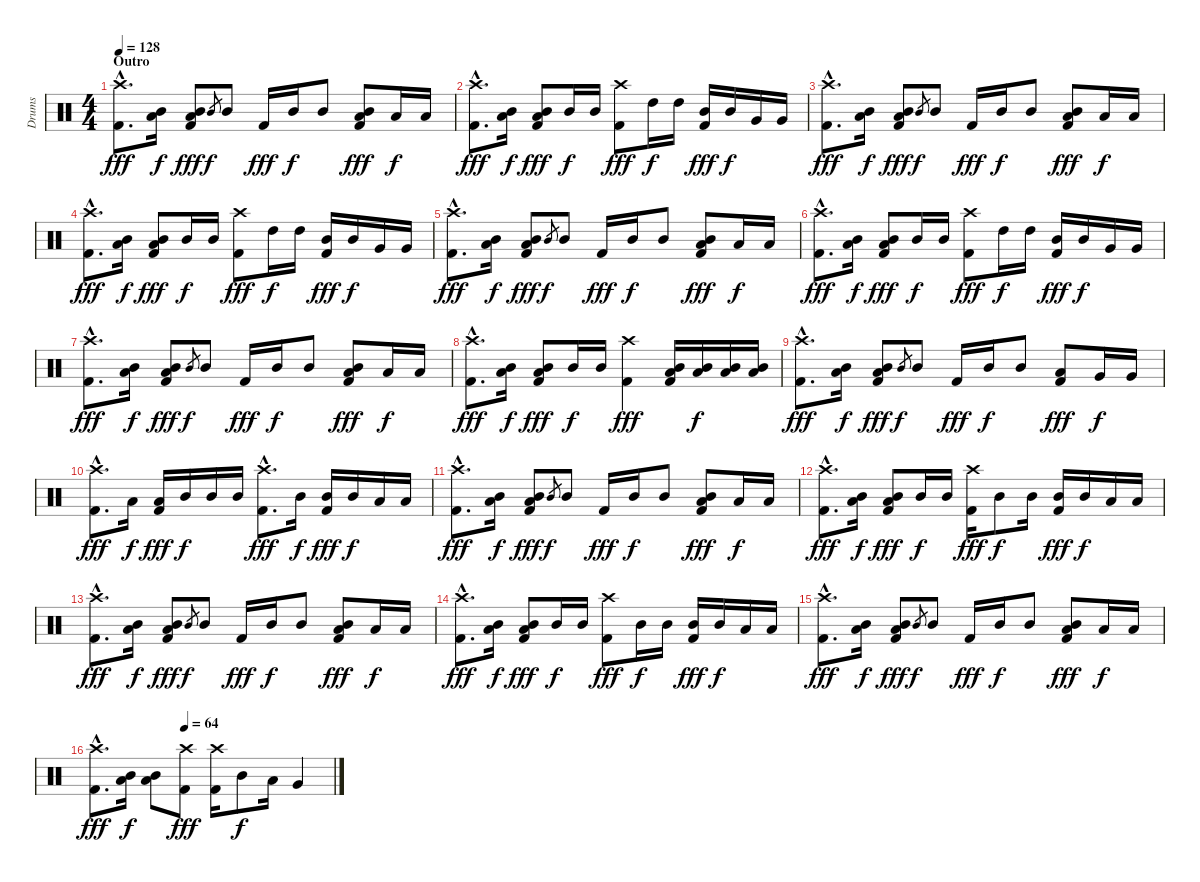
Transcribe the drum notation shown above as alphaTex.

\track ("Drums" "Drums") {instrument percussion}
\staff {score}
\articulation defaults
\ts (4 4)
\section ("" "Outro")
\tempo 128
\clef neutral
\ks c
("Crash high (hit)"{hac} "Kick (hit) 2"{hac}).8{d dy fff} ("Mid Tom (hit)" "Low Tom (hit)").16{dy f} ("Mid Tom (hit)" "Low Tom (hit)" "Kick (hit) 2").8{dy fff} "Mid Tom (hit)".8{gr dy f} "Mid Tom (hit)".8 "Kick (hit) 2".16{dy fff} "Mid Tom (hit)".16{dy f} "Mid Tom (hit)".8 ("Mid Tom (hit)" "Low Tom (hit)" "Kick (hit) 2").8{dy fff} "Low Tom (hit)".16{dy f} "Low Tom (hit)".16 |
("Crash high (hit)"{hac} "Kick (hit) 2"{hac}).8{d dy fff} ("Mid Tom (hit)" "Low Tom (hit)").16{dy f} ("Mid Tom (hit)" "Low Tom (hit)" "Kick (hit) 2").8{dy fff} "Mid Tom (hit)".16{dy f} "Mid Tom (hit)".16 ("Crash high (hit)" "Kick (hit) 2").8{dy fff} "High Tom (hit)".16{dy f} "High Tom (hit)".16 ("Mid Tom (hit)" "Kick (hit) 2").16{dy fff} "Mid Tom (hit)".16{dy f} "Very Low Tom (hit)".16 "Very Low Tom (hit)".16 |
("Crash high (hit)"{hac} "Kick (hit) 2"{hac}).8{d dy fff} ("Mid Tom (hit)" "Low Tom (hit)").16{dy f} ("Mid Tom (hit)" "Low Tom (hit)" "Kick (hit) 2").8{dy fff} "Mid Tom (hit)".8{gr dy f} "Mid Tom (hit)".8 "Kick (hit) 2".16{dy fff} "Mid Tom (hit)".16{dy f} "Mid Tom (hit)".8 ("Mid Tom (hit)" "Low Tom (hit)" "Kick (hit) 2").8{dy fff} "Low Tom (hit)".16{dy f} "Low Tom (hit)".16 |
("Crash high (hit)"{hac} "Kick (hit) 2"{hac}).8{d dy fff} ("Mid Tom (hit)" "Low Tom (hit)").16{dy f} ("Mid Tom (hit)" "Low Tom (hit)" "Kick (hit) 2").8{dy fff} "Mid Tom (hit)".16{dy f} "Mid Tom (hit)".16 ("Crash high (hit)" "Kick (hit) 2").8{dy fff} "High Tom (hit)".16{dy f} "High Tom (hit)".16 ("Mid Tom (hit)" "Kick (hit) 2").16{dy fff} "Mid Tom (hit)".16{dy f} "Very Low Tom (hit)".16 "Very Low Tom (hit)".16 |
("Crash high (hit)"{hac} "Kick (hit) 2"{hac}).8{d dy fff} ("Mid Tom (hit)" "Low Tom (hit)").16{dy f} ("Mid Tom (hit)" "Low Tom (hit)" "Kick (hit) 2").8{dy fff} "Mid Tom (hit)".8{gr dy f} "Mid Tom (hit)".8 "Kick (hit) 2".16{dy fff} "Mid Tom (hit)".16{dy f} "Mid Tom (hit)".8 ("Mid Tom (hit)" "Low Tom (hit)" "Kick (hit) 2").8{dy fff} "Low Tom (hit)".16{dy f} "Low Tom (hit)".16 |
("Crash high (hit)"{hac} "Kick (hit) 2"{hac}).8{d dy fff} ("Mid Tom (hit)" "Low Tom (hit)").16{dy f} ("Mid Tom (hit)" "Low Tom (hit)" "Kick (hit) 2").8{dy fff} "Mid Tom (hit)".16{dy f} "Mid Tom (hit)".16 ("Crash high (hit)" "Kick (hit) 2").8{dy fff} "High Tom (hit)".16{dy f} "High Tom (hit)".16 ("Mid Tom (hit)" "Kick (hit) 2").16{dy fff} "Mid Tom (hit)".16{dy f} "Very Low Tom (hit)".16 "Very Low Tom (hit)".16 |
("Crash high (hit)"{hac} "Kick (hit) 2"{hac}).8{d dy fff} ("Mid Tom (hit)" "Low Tom (hit)").16{dy f} ("Mid Tom (hit)" "Low Tom (hit)" "Kick (hit) 2").8{dy fff} "Mid Tom (hit)".8{gr dy f} "Mid Tom (hit)".8 "Kick (hit) 2".16{dy fff} "Mid Tom (hit)".16{dy f} "Mid Tom (hit)".8 ("Mid Tom (hit)" "Low Tom (hit)" "Kick (hit) 2").8{dy fff} "Low Tom (hit)".16{dy f} "Low Tom (hit)".16 |
("Crash high (hit)"{hac} "Kick (hit) 2"{hac}).8{d dy fff} ("Mid Tom (hit)" "Low Tom (hit)").16{dy f} ("Mid Tom (hit)" "Low Tom (hit)" "Kick (hit) 2").8{dy fff} "Mid Tom (hit)".16{dy f} "Mid Tom (hit)".16 ("Crash high (hit)" "Kick (hit) 2").4{dy fff} ("Mid Tom (hit)" "Low Tom (hit)" "Kick (hit) 2").16 ("Mid Tom (hit)" "Low Tom (hit)").16{dy f} ("Mid Tom (hit)" "Low Tom (hit)").16 ("Mid Tom (hit)" "Low Tom (hit)").16 |
("Crash high (hit)"{hac} "Kick (hit) 2"{hac}).8{d dy fff} ("Mid Tom (hit)" "Low Tom (hit)").16{dy f} ("Mid Tom (hit)" "Low Tom (hit)" "Kick (hit) 2").8{dy fff} "Mid Tom (hit)".8{gr dy f} "Mid Tom (hit)".8 "Kick (hit) 2".16{dy fff} "Mid Tom (hit)".16{dy f} "Mid Tom (hit)".8 ("Low Tom (hit)" "Kick (hit) 2").8{dy fff} "Very Low Tom (hit)".16{dy f} "Very Low Tom (hit)".16 |
("Crash high (hit)"{hac} "Kick (hit) 2"{hac}).8{d dy fff} "Low Tom (hit)".16{dy f} ("Low Tom (hit)" "Kick (hit) 2").16{dy fff} "Mid Tom (hit)".16{dy f} "Mid Tom (hit)".16 "Mid Tom (hit)".16 ("Crash high (hit)"{hac} "Kick (hit) 2"{hac}).8{d dy fff} "Mid Tom (hit)".16{dy f} ("Mid Tom (hit)" "Kick (hit) 2").16{dy fff} "Mid Tom (hit)".16{dy f} "Low Tom (hit)".16 "Low Tom (hit)".16 |
("Crash high (hit)"{hac} "Kick (hit) 2"{hac}).8{d dy fff} ("Mid Tom (hit)" "Low Tom (hit)").16{dy f} ("Mid Tom (hit)" "Low Tom (hit)" "Kick (hit) 2").8{dy fff} "Mid Tom (hit)".8{gr dy f} "Mid Tom (hit)".8 "Kick (hit) 2".16{dy fff} "Mid Tom (hit)".16{dy f} "Mid Tom (hit)".8 ("Mid Tom (hit)" "Low Tom (hit)" "Kick (hit) 2").8{dy fff} "Low Tom (hit)".16{dy f} "Low Tom (hit)".16 |
("Crash high (hit)"{hac} "Kick (hit) 2"{hac}).8{d dy fff} ("Mid Tom (hit)" "Low Tom (hit)").16{dy f} ("Mid Tom (hit)" "Low Tom (hit)" "Kick (hit) 2").8{dy fff} "Mid Tom (hit)".16{dy f} "Mid Tom (hit)".16 ("Crash high (hit)" "Kick (hit) 2").16{dy fff} "Mid Tom (hit)".8{dy f} "Mid Tom (hit)".16 ("Mid Tom (hit)" "Kick (hit) 2").16{dy fff} "Mid Tom (hit)".16{dy f} "Low Tom (hit)".16 "Low Tom (hit)".16 |
("Crash high (hit)"{hac} "Kick (hit) 2"{hac}).8{d dy fff} ("Mid Tom (hit)" "Low Tom (hit)").16{dy f} ("Mid Tom (hit)" "Low Tom (hit)" "Kick (hit) 2").8{dy fff} "Mid Tom (hit)".8{gr dy f} "Mid Tom (hit)".8 "Kick (hit) 2".16{dy fff} "Mid Tom (hit)".16{dy f} "Mid Tom (hit)".8 ("Mid Tom (hit)" "Low Tom (hit)" "Kick (hit) 2").8{dy fff} "Low Tom (hit)".16{dy f} "Low Tom (hit)".16 |
("Crash high (hit)"{hac} "Kick (hit) 2"{hac}).8{d dy fff} ("Mid Tom (hit)" "Low Tom (hit)").16{dy f} ("Mid Tom (hit)" "Low Tom (hit)" "Kick (hit) 2").8{dy fff} "Mid Tom (hit)".16{dy f} "Mid Tom (hit)".16 ("Crash high (hit)" "Kick (hit) 2").8{dy fff} "Mid Tom (hit)".16{dy f} "Mid Tom (hit)".16 ("Mid Tom (hit)" "Kick (hit) 2").16{dy fff} "Mid Tom (hit)".16{dy f} "Low Tom (hit)".16 "Low Tom (hit)".16 |
("Crash high (hit)"{hac} "Kick (hit) 2"{hac}).8{d dy fff} ("Mid Tom (hit)" "Low Tom (hit)").16{dy f} ("Mid Tom (hit)" "Low Tom (hit)" "Kick (hit) 2").8{dy fff} "Mid Tom (hit)".8{gr dy f} "Mid Tom (hit)".8 "Kick (hit) 2".16{dy fff} "Mid Tom (hit)".16{dy f} "Mid Tom (hit)".8 ("Mid Tom (hit)" "Low Tom (hit)" "Kick (hit) 2").8{dy fff} "Low Tom (hit)".16{dy f} "Low Tom (hit)".16 |
\tempo (64 0.375)
("Crash high (hit)"{hac} "Kick (hit) 2"{hac}).8{d dy fff} ("Mid Tom (hit)" "Low Tom (hit)").16{dy f} ("Mid Tom (hit)" "Low Tom (hit)").8 ("Crash high (hit)" "Kick (hit) 2").8{dy fff} ("Crash high (hit)" "Kick (hit) 2").16 "Mid Tom (hit)".8{dy f} "Low Tom (hit)".16 "Very Low Tom (hit)".4
